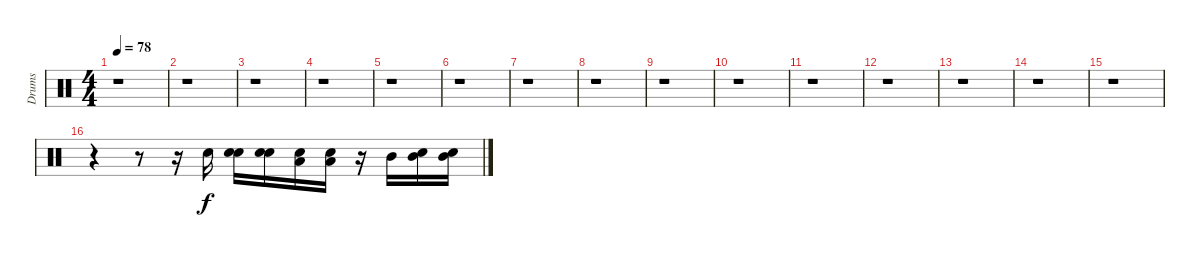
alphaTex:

\track ("Drums" "Drums") {instrument percussion}
\staff {score}
\articulation defaults
\ts (4 4)
\tempo 78
\clef neutral
\ks c
r.1{dy f} |
r.1 |
r.1 |
r.1 |
r.1 |
r.1 |
r.1 |
r.1 |
r.1 |
r.1 |
r.1 |
r.1 |
r.1 |
r.1 |
r.1 |
r.4 r.8 r.16 "Snare (hit) 2".16 ("Snare (hit)" "Snare (hit) 2").16 ("Snare (hit)" "Snare (hit) 2").16 ("Snare (hit)" "Low Tom (hit)").16 ("Snare (hit)" "Low Tom (hit)").16 r.16 "Mid Tom (hit)".16 ("Snare (hit)" "Mid Tom (hit)").16 ("Snare (hit)" "Mid Tom (hit)").16
